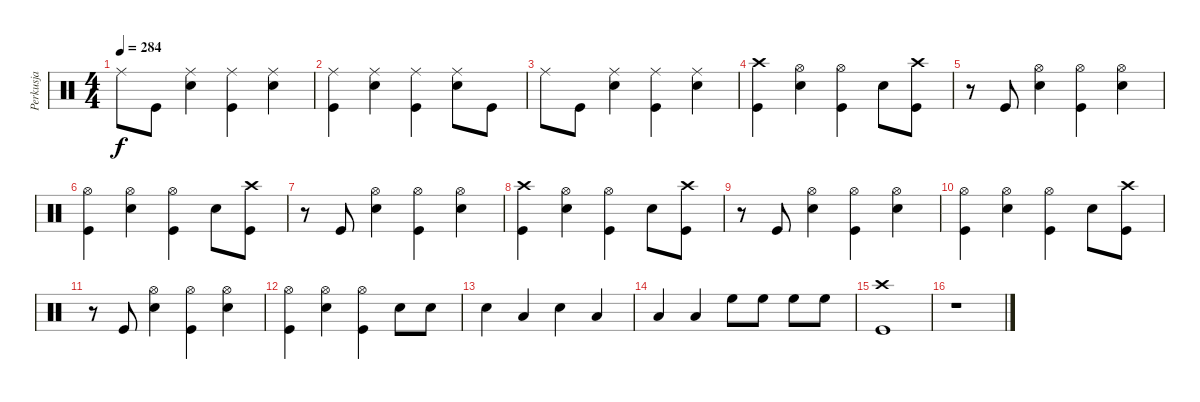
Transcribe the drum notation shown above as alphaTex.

\track ("Perkusja" "Perkusja") {instrument percussion}
\staff {score}
\articulation defaults
\ts (4 4)
\tempo 284
\clef neutral
\ks c "Ride (middle)".8{dy f} "Kick (hit)".8
("Ride (middle)" "Snare (hit) 2").4 ("Ride (middle)" "Kick (hit)").4 ("Ride (middle)" "Snare (hit) 2").4 |
("Ride (middle)" "Kick (hit)").4 ("Ride (middle)" "Snare (hit) 2").4 ("Ride (middle)" "Kick (hit)").4 ("Ride (middle)" "Snare (hit) 2").8 "Kick (hit)".8 |
"Ride (middle)".8 "Kick (hit)".8 ("Ride (middle)" "Snare (hit) 2").4 ("Ride (middle)" "Kick (hit)").4 ("Ride (middle)" "Snare (hit) 2").4 |
("Kick (hit)" "Crash high (hit)").4 ("Hi-Hat (open)" "Snare (hit) 2").4 ("Hi-Hat (open)" "Kick (hit)").4 "Snare (hit) 2".8 ("Kick (hit)" "Crash high (hit)").8 |
r.8 "Kick (hit)".8 ("Hi-Hat (open)" "Snare (hit) 2").4 ("Hi-Hat (open)" "Kick (hit)").4 ("Hi-Hat (open)" "Snare (hit) 2").4 |
("Hi-Hat (open)" "Kick (hit)").4 ("Hi-Hat (open)" "Snare (hit) 2").4 ("Hi-Hat (open)" "Kick (hit)").4 "Snare (hit) 2".8 ("Kick (hit)" "Crash high (hit)").8 |
r.8 "Kick (hit)".8 ("Hi-Hat (open)" "Snare (hit) 2").4 ("Hi-Hat (open)" "Kick (hit)").4 ("Hi-Hat (open)" "Snare (hit) 2").4 |
("Kick (hit)" "Crash high (hit)").4 ("Hi-Hat (open)" "Snare (hit) 2").4 ("Hi-Hat (open)" "Kick (hit)").4 "Snare (hit) 2".8 ("Kick (hit)" "Crash high (hit)").8 |
r.8 "Kick (hit)".8 ("Hi-Hat (open)" "Snare (hit) 2").4 ("Hi-Hat (open)" "Kick (hit)").4 ("Hi-Hat (open)" "Snare (hit) 2").4 |
("Hi-Hat (open)" "Kick (hit)").4 ("Hi-Hat (open)" "Snare (hit) 2").4 ("Hi-Hat (open)" "Kick (hit)").4 "Snare (hit) 2".8 ("Kick (hit)" "Crash high (hit)").8 |
r.8 "Kick (hit)".8 ("Hi-Hat (open)" "Snare (hit) 2").4 ("Hi-Hat (open)" "Kick (hit)").4 ("Hi-Hat (open)" "Snare (hit) 2").4 |
("Hi-Hat (open)" "Kick (hit)").4 ("Hi-Hat (open)" "Snare (hit) 2").4 ("Hi-Hat (open)" "Kick (hit)").4 "Snare (hit) 2".8 "Snare (hit) 2".8 |
"Snare (hit) 2".4 "Low Tom (hit)".4 "Snare (hit) 2".4 "Low Tom (hit)".4 |
"Low Tom (hit)".4 "Low Tom (hit)".4 "High Floor Tom (hit)".8 "High Floor Tom (hit)".8 "High Floor Tom (hit)".8 "High Floor Tom (hit)".8 |
("Kick (hit)" "Crash high (hit)").1 |
r.1
